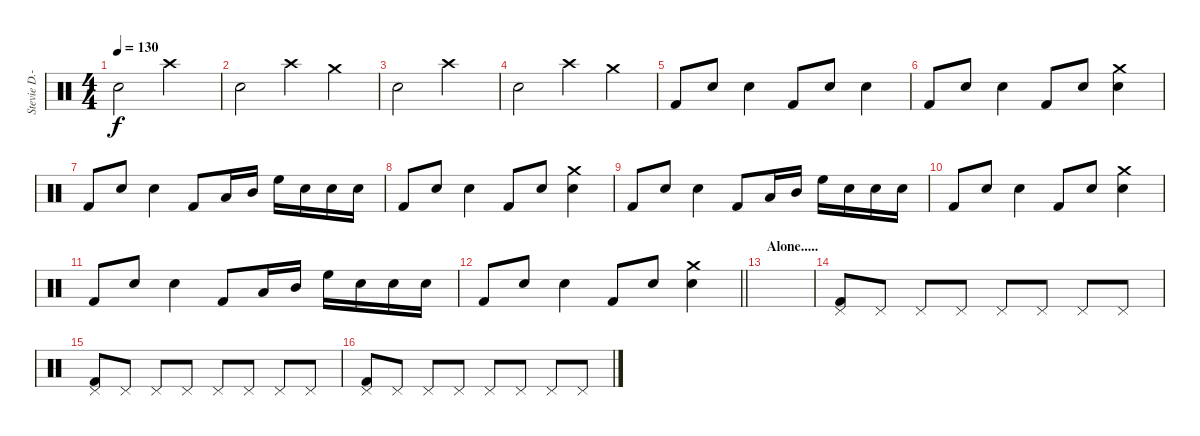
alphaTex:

\track ("Stevie D.-Drums" "Stevie D.-") {instrument percussion}
\staff {score}
\articulation defaults
\ts (4 4)
\tempo 130
\clef neutral
\ks c "Snare (hit) 2".2{dy f} "Crash high (hit)".2
|
"Snare (hit) 2".2 "Crash high (hit)".4 "Crash medium (hit)".4 |
"Snare (hit) 2".2 "Crash high (hit)".2 |
"Snare (hit) 2".2 "Crash high (hit)".4 "Crash medium (hit)".4 |
"Kick (hit) 2".8 "Snare (hit) 2".8 "Electric Snare (hit)".4 "Kick (hit) 2".8 "Snare (hit) 2".8 "Electric Snare (hit)".4 |
"Kick (hit) 2".8 "Snare (hit) 2".8 "Electric Snare (hit)".4 "Kick (hit) 2".8 "Snare (hit) 2".8 ("Electric Snare (hit)" "Crash medium (hit)").4 |
"Kick (hit) 2".8 "Snare (hit) 2".8 "Electric Snare (hit)".4 "Kick (hit) 2".8 "Low Tom (hit)".16 "Mid Tom (hit)".16 "High Floor Tom (hit)".16 "Electric Snare (hit)".16 "Electric Snare (hit)".16 "Electric Snare (hit)".16 |
"Kick (hit) 2".8 "Snare (hit) 2".8 "Electric Snare (hit)".4 "Kick (hit) 2".8 "Snare (hit) 2".8 ("Electric Snare (hit)" "Crash medium (hit)").4 |
"Kick (hit) 2".8 "Snare (hit) 2".8 "Electric Snare (hit)".4 "Kick (hit) 2".8 "Low Tom (hit)".16 "Mid Tom (hit)".16 "High Floor Tom (hit)".16 "Electric Snare (hit)".16 "Electric Snare (hit)".16 "Electric Snare (hit)".16 |
"Kick (hit) 2".8 "Snare (hit) 2".8 "Electric Snare (hit)".4 "Kick (hit) 2".8 "Snare (hit) 2".8 ("Electric Snare (hit)" "Crash medium (hit)").4 |
"Kick (hit) 2".8 "Snare (hit) 2".8 "Electric Snare (hit)".4 "Kick (hit) 2".8 "Low Tom (hit)".16 "Mid Tom (hit)".16 "High Floor Tom (hit)".16 "Electric Snare (hit)".16 "Electric Snare (hit)".16 "Electric Snare (hit)".16 |
\barLineRight lightlight "Kick (hit) 2".8 "Snare (hit) 2".8 "Electric Snare (hit)".4 "Kick (hit) 2".8 "Snare (hit) 2".8
("Electric Snare (hit)" "Crash medium (hit)").4 |
\section ("" "Alone.....")
|
("Pedal Hi-Hat (hit)" "Kick (hit) 2").8 "Pedal Hi-Hat (hit)".8 "Pedal Hi-Hat (hit)".8 "Pedal Hi-Hat (hit)".8 "Pedal Hi-Hat (hit)".8 "Pedal Hi-Hat (hit)".8 "Pedal Hi-Hat (hit)".8 "Pedal Hi-Hat (hit)".8 |
("Pedal Hi-Hat (hit)" "Kick (hit) 2").8 "Pedal Hi-Hat (hit)".8 "Pedal Hi-Hat (hit)".8 "Pedal Hi-Hat (hit)".8 "Pedal Hi-Hat (hit)".8 "Pedal Hi-Hat (hit)".8 "Pedal Hi-Hat (hit)".8 "Pedal Hi-Hat (hit)".8 |
("Pedal Hi-Hat (hit)" "Kick (hit) 2").8 "Pedal Hi-Hat (hit)".8 "Pedal Hi-Hat (hit)".8 "Pedal Hi-Hat (hit)".8 "Pedal Hi-Hat (hit)".8 "Pedal Hi-Hat (hit)".8 "Pedal Hi-Hat (hit)".8 "Pedal Hi-Hat (hit)".8
